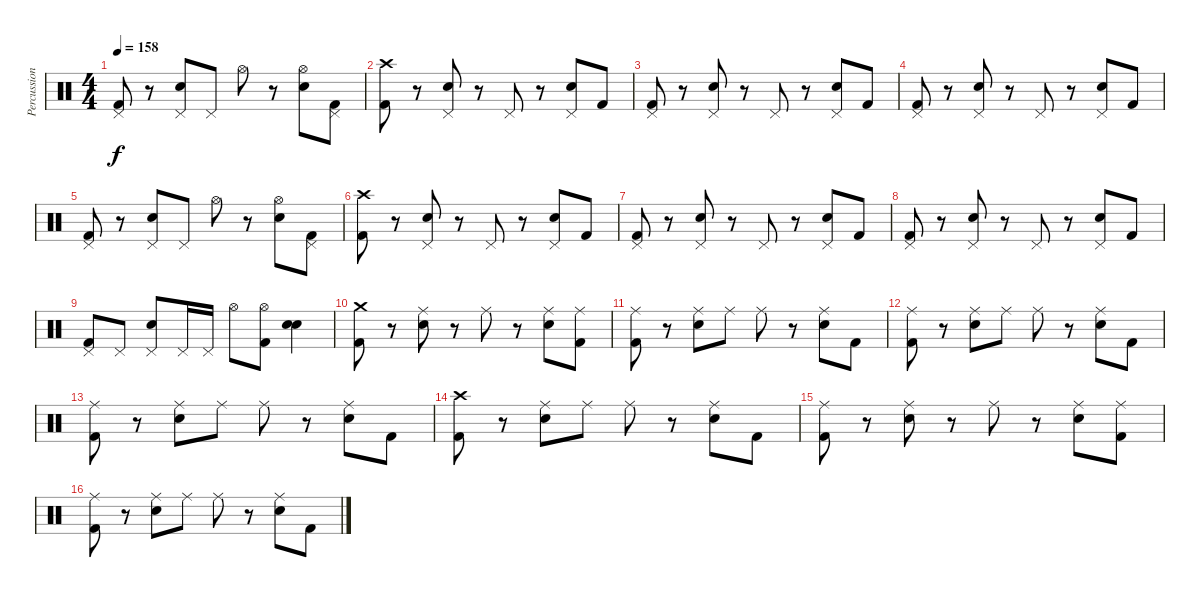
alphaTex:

\track ("Percussion" "Percussion") {instrument percussion bank 78}
\staff {score}
\articulation defaults
\ts (4 4)
\tempo 158
\clef neutral
\ks c
("Pedal Hi-Hat (hit)" "Kick (hit) 2").8{dy f} r.8 ("Pedal Hi-Hat (hit)" "Electric Snare (hit)").8 "Pedal Hi-Hat (hit)".8 "Hi-Hat (open)".8 r.8 ("Hi-Hat (open)" "Electric Snare (hit)").8 ("Pedal Hi-Hat (hit)" "Kick (hit) 2").8 |
("Crash high (hit)" "Kick (hit) 2").8 r.8 ("Pedal Hi-Hat (hit)" "Electric Snare (hit)").8 r.8 "Pedal Hi-Hat (hit)".8 r.8 ("Pedal Hi-Hat (hit)" "Electric Snare (hit)").8 "Kick (hit) 2".8 |
("Pedal Hi-Hat (hit)" "Kick (hit) 2").8 r.8 ("Pedal Hi-Hat (hit)" "Electric Snare (hit)").8 r.8 "Pedal Hi-Hat (hit)".8 r.8 ("Pedal Hi-Hat (hit)" "Electric Snare (hit)").8 "Kick (hit) 2".8 |
("Pedal Hi-Hat (hit)" "Kick (hit) 2").8 r.8 ("Pedal Hi-Hat (hit)" "Electric Snare (hit)").8 r.8 "Pedal Hi-Hat (hit)".8 r.8 ("Pedal Hi-Hat (hit)" "Electric Snare (hit)").8 "Kick (hit) 2".8 |
("Pedal Hi-Hat (hit)" "Kick (hit) 2").8 r.8 ("Pedal Hi-Hat (hit)" "Electric Snare (hit)").8 "Pedal Hi-Hat (hit)".8 "Hi-Hat (open)".8 r.8 ("Hi-Hat (open)" "Electric Snare (hit)").8 ("Pedal Hi-Hat (hit)" "Kick (hit) 2").8 |
("Crash high (hit)" "Kick (hit) 2").8 r.8 ("Pedal Hi-Hat (hit)" "Electric Snare (hit)").8 r.8 "Pedal Hi-Hat (hit)".8 r.8 ("Pedal Hi-Hat (hit)" "Electric Snare (hit)").8 "Kick (hit) 2".8 |
("Pedal Hi-Hat (hit)" "Kick (hit) 2").8 r.8 ("Pedal Hi-Hat (hit)" "Electric Snare (hit)").8 r.8 "Pedal Hi-Hat (hit)".8 r.8 ("Pedal Hi-Hat (hit)" "Electric Snare (hit)").8 "Kick (hit) 2".8 |
("Pedal Hi-Hat (hit)" "Kick (hit) 2").8 r.8 ("Pedal Hi-Hat (hit)" "Electric Snare (hit)").8 r.8 "Pedal Hi-Hat (hit)".8 r.8 ("Pedal Hi-Hat (hit)" "Electric Snare (hit)").8 "Kick (hit) 2".8 |
("Pedal Hi-Hat (hit)" "Kick (hit) 2").8 "Pedal Hi-Hat (hit)".8 ("Pedal Hi-Hat (hit)" "Electric Snare (hit)").8 "Pedal Hi-Hat (hit)".16 "Pedal Hi-Hat (hit)".16 "Hi-Hat (open)".8 ("Hi-Hat (open)" "Kick (hit) 2").8 ("Electric Snare (hit)" "Electric Snare (hit)").4 |
("Crash medium (hit)" "Kick (hit) 2").8 r.8 ("Ride (middle)" "Electric Snare (hit)").8 r.8 "Ride (middle)".8 r.8 ("Ride (middle)" "Electric Snare (hit)").8 ("Ride (middle)" "Kick (hit) 2").8 |
("Ride (middle)" "Kick (hit) 2").8 r.8 ("Ride (middle)" "Electric Snare (hit)").8 "Ride (middle)".8 "Ride (middle)".8 r.8 ("Ride (middle)" "Electric Snare (hit)").8 "Kick (hit) 2".8 |
("Ride (middle)" "Kick (hit) 2").8 r.8 ("Ride (middle)" "Electric Snare (hit)").8 "Ride (middle)".8 "Ride (middle)".8 r.8 ("Ride (middle)" "Electric Snare (hit)").8 "Kick (hit) 2".8 |
("Ride (middle)" "Kick (hit) 2").8 r.8 ("Ride (middle)" "Electric Snare (hit)").8 "Ride (middle)".8 "Ride (middle)".8 r.8 ("Ride (middle)" "Electric Snare (hit)").8 "Kick (hit) 2".8 |
("Crash high (hit)" "Kick (hit) 2").8 r.8 ("Ride (middle)" "Electric Snare (hit)").8 "Ride (middle)".8 "Ride (middle)".8 r.8 ("Ride (middle)" "Electric Snare (hit)").8 "Kick (hit) 2".8 |
("Ride (middle)" "Kick (hit) 2").8 r.8 ("Ride (middle)" "Electric Snare (hit)").8 r.8 "Ride (middle)".8 r.8 ("Ride (middle)" "Electric Snare (hit)").8 ("Ride (middle)" "Kick (hit) 2").8 |
("Ride (middle)" "Kick (hit) 2").8 r.8 ("Ride (middle)" "Electric Snare (hit)").8 "Ride (middle)".8 "Ride (middle)".8 r.8 ("Ride (middle)" "Electric Snare (hit)").8 "Kick (hit) 2".8
